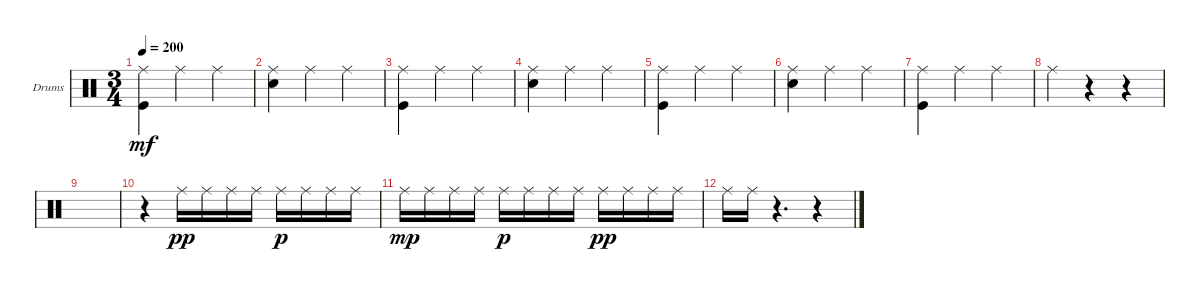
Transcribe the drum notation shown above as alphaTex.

\bracketExtendMode groupsimilarinstruments
\firstSystemTrackNameOrientation horizontal
\otherSystemsTrackNameOrientation horizontal
\track ("Drumkit" "Drums") {instrument percussion}
\staff {score}
\articulation defaults
\ts (3 4)
\tempo 200
\clef neutral
\scale
0.333333
\ks c
("Kick (hit)" "Ride (middle)").4{dy mf} "Ride (middle)".4 "Ride (middle)".4 |
\scale
0.333333 ("Snare (hit) 2" "Ride (middle)").4 "Ride (middle)".4 "Ride (middle)".4 |
\scale
0.333333 ("Kick (hit)" "Ride (middle)").4 "Ride (middle)".4 "Ride (middle)".4 |
\scale
0.333333 ("Snare (hit) 2" "Ride (middle)").4 "Ride (middle)".4 "Ride (middle)".4 |
\scale
0.333333 ("Kick (hit)" "Ride (middle)").4 "Ride (middle)".4 "Ride (middle)".4 |
\scale
0.333333 ("Snare (hit) 2" "Ride (middle)").4 "Ride (middle)".4 "Ride (middle)".4 |
\scale
0.333333 ("Kick (hit)" "Ride (middle)").4 "Ride (middle)".4 "Ride (middle)".4 |
\scale
0.333333 "Ride (middle)".4 r.4 r.4 |
\scale
0.333333 |
\scale
0.333333 r.4 "Ride (middle)".16{dy pp} "Ride (middle)".16 "Ride (middle)".16 "Ride (middle)".16 "Ride (middle)".16{dy p} "Ride (middle)".16 "Ride (middle)".16 "Ride (middle)".16 |
\scale
0.333333 "Ride (middle)".16{dy mp} "Ride (middle)".16 "Ride (middle)".16 "Ride (middle)".16 "Ride (middle)".16{dy p} "Ride (middle)".16 "Ride (middle)".16 "Ride (middle)".16 "Ride (middle)".16{dy pp} "Ride (middle)".16 "Ride (middle)".16 "Ride (middle)".16 |
\scale
0.333333 "Ride (middle)".16 "Ride (middle)".16 r.4{d} r.4 |
\scale
0.333333 |
\scale
0.333333 |
\scale
0.333333 |
\scale
0.333333
